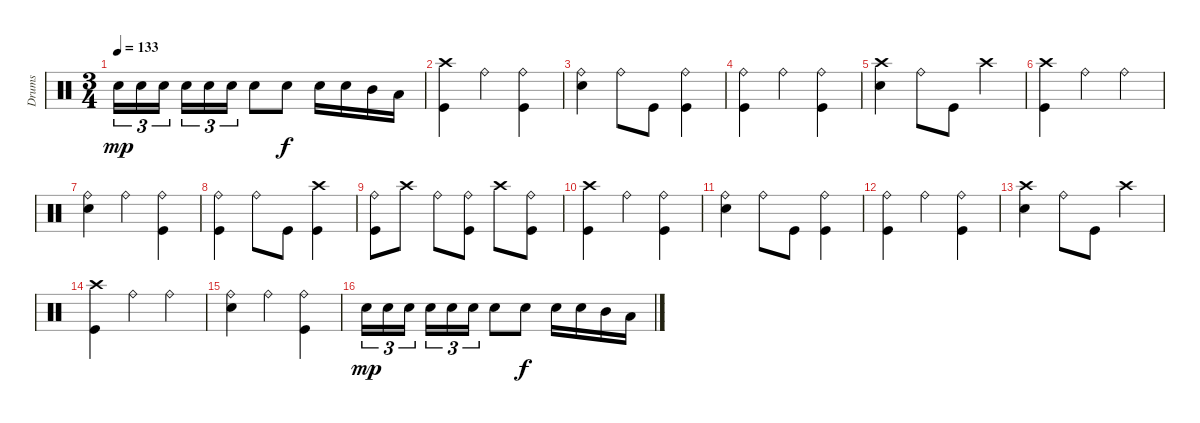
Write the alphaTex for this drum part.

\track ("Drums" "Drums") {instrument percussion}
\staff {score}
\articulation defaults
\ts (3 4)
\tempo 133
\clef neutral
\ks c "Snare (hit) 2".16{tu (3 2) dy mp} "Snare (hit) 2".16{tu (3 2)} "Snare (hit) 2".16{tu (3 2)} "Snare (hit) 2".16{tu (3 2)} "Snare (hit) 2".16{tu (3 2)} "Snare (hit) 2".16{tu (3 2)} "Snare (hit) 2".8 "Snare (hit) 2".8{dy f} "Snare (hit) 2".16 "Snare (hit) 2".16 "Mid Tom (hit)".16 "Low Tom (hit)".16
|
("Crash high (hit)" "Kick (hit)").4 "Ride (bell)".4 ("Ride (bell)" "Kick (hit)").4 |
("Ride (bell)" "Snare (hit) 2").4 "Ride (bell)".8 "Kick (hit)".8 ("Ride (bell)" "Kick (hit)").4 |
("Ride (bell)" "Kick (hit)").4 "Ride (bell)".4 ("Ride (bell)" "Kick (hit)").4 |
("Crash high (hit)" "Snare (hit) 2").4 "Ride (bell)".8 "Kick (hit)".8 "Crash high (hit)".4 |
("Crash high (hit)" "Kick (hit)").4 "Ride (bell)".4 "Ride (bell)".4 |
("Ride (bell)" "Snare (hit) 2").4 "Ride (bell)".4 ("Ride (bell)" "Kick (hit)").4 |
("Ride (bell)" "Kick (hit)").4 "Ride (bell)".8 "Kick (hit)".8 ("Crash high (hit)" "Kick (hit)").4 |
("Ride (bell)" "Kick (hit)").8 "Crash high (hit)".8 "Ride (bell)".8 ("Ride (bell)" "Kick (hit)").8 "Crash high (hit)".8 ("Ride (bell)" "Kick (hit)").8 |
("Crash high (hit)" "Kick (hit)").4 "Ride (bell)".4 ("Ride (bell)" "Kick (hit)").4 |
("Ride (bell)" "Snare (hit) 2").4 "Ride (bell)".8 "Kick (hit)".8 ("Ride (bell)" "Kick (hit)").4 |
("Ride (bell)" "Kick (hit)").4 "Ride (bell)".4 ("Ride (bell)" "Kick (hit)").4 |
("Crash high (hit)" "Snare (hit) 2").4 "Ride (bell)".8 "Kick (hit)".8 "Crash high (hit)".4 |
("Crash high (hit)" "Kick (hit)").4 "Ride (bell)".4 "Ride (bell)".4 |
("Ride (bell)" "Snare (hit) 2").4 "Ride (bell)".4 ("Ride (bell)" "Kick (hit)").4 |
"Snare (hit) 2".16{tu (3 2) dy mp} "Snare (hit) 2".16{tu (3 2)} "Snare (hit) 2".16{tu (3 2)} "Snare (hit) 2".16{tu (3 2)} "Snare (hit) 2".16{tu (3 2)} "Snare (hit) 2".16{tu (3 2)} "Snare (hit) 2".8 "Snare (hit) 2".8{dy f} "Snare (hit) 2".16 "Snare (hit) 2".16 "Mid Tom (hit)".16 "Low Tom (hit)".16
